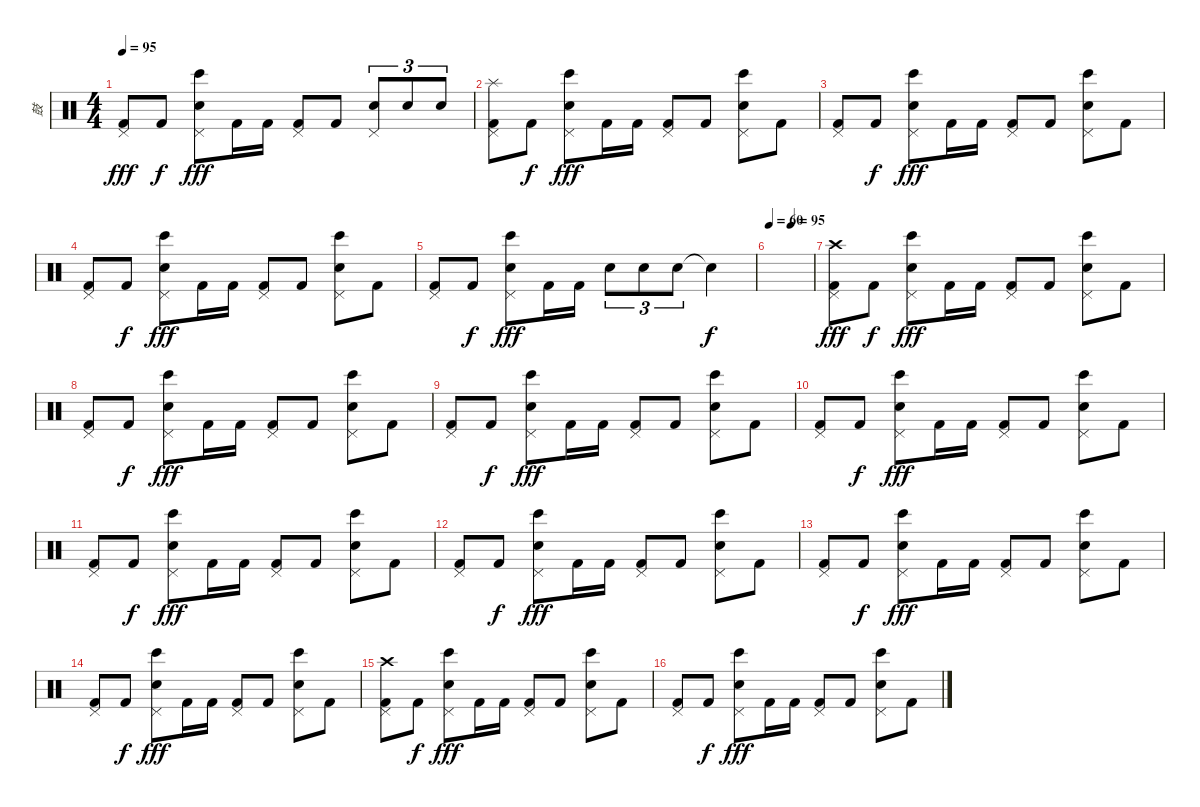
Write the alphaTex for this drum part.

\track ("鼓" "鼓") {instrument percussion}
\staff {score}
\articulation defaults
\ts (4 4)
\tempo 95
\clef neutral
\ks c
("Pedal Hi-Hat (hit)" "Kick (hit) 2").8{dy fff} "Kick (hit) 2".8{dy f} ("Pedal Hi-Hat (hit)" "Electric Snare (hit)" "Bongo High (hit)").8{dy fff} "Kick (hit) 2".16 "Kick (hit) 2".16 ("Pedal Hi-Hat (hit)" "Kick (hit) 2").8 "Kick (hit) 2".8 ("Pedal Hi-Hat (hit)" "Electric Snare (hit)").8{tu (3 2)} "Electric Snare (hit)".8{tu (3 2)} "Electric Snare (hit)".8{tu (3 2)} |
("Pedal Hi-Hat (hit)" "Splash (hit)" "Kick (hit) 2").8 "Kick (hit) 2".8{dy f} ("Pedal Hi-Hat (hit)" "Electric Snare (hit)" "Bongo High (hit)").8{dy fff} "Kick (hit) 2".16 "Kick (hit) 2".16 ("Pedal Hi-Hat (hit)" "Kick (hit) 2").8 "Kick (hit) 2".8 ("Pedal Hi-Hat (hit)" "Electric Snare (hit)" "Bongo High (hit)").8 "Kick (hit) 2".8 |
("Pedal Hi-Hat (hit)" "Kick (hit) 2").8 "Kick (hit) 2".8{dy f} ("Pedal Hi-Hat (hit)" "Electric Snare (hit)" "Bongo High (hit)").8{dy fff} "Kick (hit) 2".16 "Kick (hit) 2".16 ("Pedal Hi-Hat (hit)" "Kick (hit) 2").8 "Kick (hit) 2".8 ("Pedal Hi-Hat (hit)" "Electric Snare (hit)" "Bongo High (hit)").8 "Kick (hit) 2".8 |
("Pedal Hi-Hat (hit)" "Kick (hit) 2").8 "Kick (hit) 2".8{dy f} ("Pedal Hi-Hat (hit)" "Electric Snare (hit)" "Bongo High (hit)").8{dy fff} "Kick (hit) 2".16 "Kick (hit) 2".16 ("Pedal Hi-Hat (hit)" "Kick (hit) 2").8 "Kick (hit) 2".8 ("Pedal Hi-Hat (hit)" "Electric Snare (hit)" "Bongo High (hit)").8 "Kick (hit) 2".8 |
("Pedal Hi-Hat (hit)" "Kick (hit) 2").8 "Kick (hit) 2".8{dy f} ("Pedal Hi-Hat (hit)" "Electric Snare (hit)" "Bongo High (hit)").8{dy fff} "Kick (hit) 2".16 "Kick (hit) 2".16 "Electric Snare (hit)".8{tu (3 2)} "Electric Snare (hit)".8{tu (3 2)} "Electric Snare (hit)".8{tu (3 2)} "Snare (hit)"{t}.4{dy f} |
\tempo 60
\tempo (95 0.5)
|
("Pedal Hi-Hat (hit)" "Kick (hit) 2" "Crash high (hit)").8{dy fff} "Kick (hit) 2".8{dy f} ("Pedal Hi-Hat (hit)" "Electric Snare (hit)" "Bongo High (hit)").8{dy fff} "Kick (hit) 2".16 "Kick (hit) 2".16 ("Pedal Hi-Hat (hit)" "Kick (hit) 2").8 "Kick (hit) 2".8 ("Pedal Hi-Hat (hit)" "Electric Snare (hit)" "Bongo High (hit)").8 "Kick (hit) 2".8 |
("Pedal Hi-Hat (hit)" "Kick (hit) 2").8 "Kick (hit) 2".8{dy f} ("Pedal Hi-Hat (hit)" "Electric Snare (hit)" "Bongo High (hit)").8{dy fff} "Kick (hit) 2".16 "Kick (hit) 2".16 ("Pedal Hi-Hat (hit)" "Kick (hit) 2").8 "Kick (hit) 2".8 ("Pedal Hi-Hat (hit)" "Electric Snare (hit)" "Bongo High (hit)").8 "Kick (hit) 2".8 |
("Pedal Hi-Hat (hit)" "Kick (hit) 2").8 "Kick (hit) 2".8{dy f} ("Pedal Hi-Hat (hit)" "Electric Snare (hit)" "Bongo High (hit)").8{dy fff} "Kick (hit) 2".16 "Kick (hit) 2".16 ("Pedal Hi-Hat (hit)" "Kick (hit) 2").8 "Kick (hit) 2".8 ("Pedal Hi-Hat (hit)" "Electric Snare (hit)" "Bongo High (hit)").8 "Kick (hit) 2".8 |
("Pedal Hi-Hat (hit)" "Kick (hit) 2").8 "Kick (hit) 2".8{dy f} ("Pedal Hi-Hat (hit)" "Electric Snare (hit)" "Bongo High (hit)").8{dy fff} "Kick (hit) 2".16 "Kick (hit) 2".16 ("Pedal Hi-Hat (hit)" "Kick (hit) 2").8 "Kick (hit) 2".8 ("Pedal Hi-Hat (hit)" "Electric Snare (hit)" "Bongo High (hit)").8 "Kick (hit) 2".8 |
("Pedal Hi-Hat (hit)" "Kick (hit) 2").8 "Kick (hit) 2".8{dy f} ("Pedal Hi-Hat (hit)" "Electric Snare (hit)" "Bongo High (hit)").8{dy fff} "Kick (hit) 2".16 "Kick (hit) 2".16 ("Pedal Hi-Hat (hit)" "Kick (hit) 2").8 "Kick (hit) 2".8 ("Pedal Hi-Hat (hit)" "Electric Snare (hit)" "Bongo High (hit)").8 "Kick (hit) 2".8 |
("Pedal Hi-Hat (hit)" "Kick (hit) 2").8 "Kick (hit) 2".8{dy f} ("Pedal Hi-Hat (hit)" "Electric Snare (hit)" "Bongo High (hit)").8{dy fff} "Kick (hit) 2".16 "Kick (hit) 2".16 ("Pedal Hi-Hat (hit)" "Kick (hit) 2").8 "Kick (hit) 2".8 ("Pedal Hi-Hat (hit)" "Electric Snare (hit)" "Bongo High (hit)").8 "Kick (hit) 2".8 |
("Pedal Hi-Hat (hit)" "Kick (hit) 2").8 "Kick (hit) 2".8{dy f} ("Pedal Hi-Hat (hit)" "Electric Snare (hit)" "Bongo High (hit)").8{dy fff} "Kick (hit) 2".16 "Kick (hit) 2".16 ("Pedal Hi-Hat (hit)" "Kick (hit) 2").8 "Kick (hit) 2".8 ("Pedal Hi-Hat (hit)" "Electric Snare (hit)" "Bongo High (hit)").8 "Kick (hit) 2".8 |
("Pedal Hi-Hat (hit)" "Kick (hit) 2").8 "Kick (hit) 2".8{dy f} ("Pedal Hi-Hat (hit)" "Electric Snare (hit)" "Bongo High (hit)").8{dy fff} "Kick (hit) 2".16 "Kick (hit) 2".16 ("Pedal Hi-Hat (hit)" "Kick (hit) 2").8 "Kick (hit) 2".8 ("Pedal Hi-Hat (hit)" "Electric Snare (hit)" "Bongo High (hit)").8 "Kick (hit) 2".8 |
("Pedal Hi-Hat (hit)" "Kick (hit) 2" "Crash high (hit)").8 "Kick (hit) 2".8{dy f} ("Pedal Hi-Hat (hit)" "Electric Snare (hit)" "Bongo High (hit)").8{dy fff} "Kick (hit) 2".16 "Kick (hit) 2".16 ("Pedal Hi-Hat (hit)" "Kick (hit) 2").8 "Kick (hit) 2".8 ("Pedal Hi-Hat (hit)" "Electric Snare (hit)" "Bongo High (hit)").8 "Kick (hit) 2".8 |
("Pedal Hi-Hat (hit)" "Kick (hit) 2").8 "Kick (hit) 2".8{dy f} ("Pedal Hi-Hat (hit)" "Electric Snare (hit)" "Bongo High (hit)").8{dy fff} "Kick (hit) 2".16 "Kick (hit) 2".16 ("Pedal Hi-Hat (hit)" "Kick (hit) 2").8 "Kick (hit) 2".8 ("Pedal Hi-Hat (hit)" "Electric Snare (hit)" "Bongo High (hit)").8 "Kick (hit) 2".8
